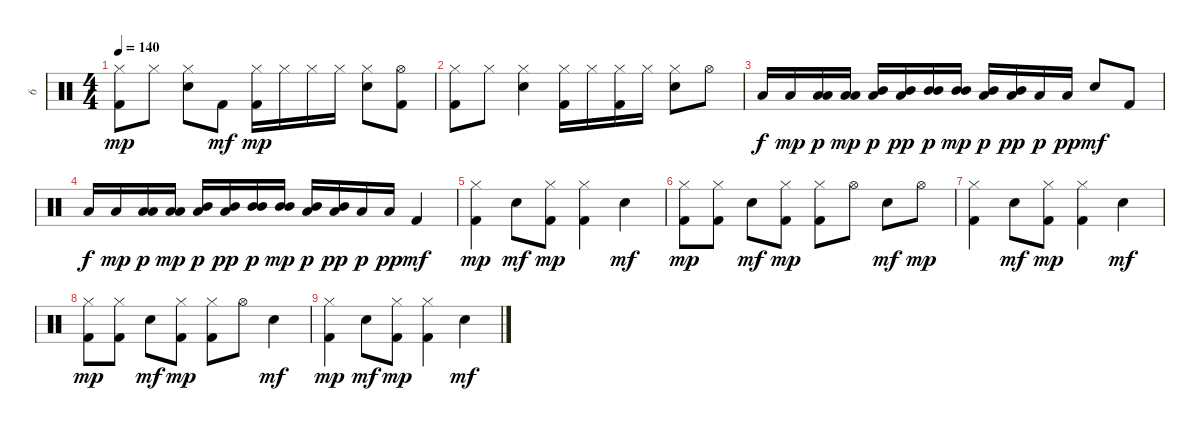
\track ("6" "6") {instrument percussion}
\staff {score}
\articulation defaults
\ts (4 4)
\tempo 140
\clef neutral
\ks c
("Kick (hit) 2" "Hi-Hat (closed)").8{dy mp} "Hi-Hat (closed)".8 ("Electric Snare (hit)" "Hi-Hat (closed)").8 "Kick (hit) 2".8{dy mf} ("Kick (hit) 2" "Hi-Hat (closed)").16{dy mp} "Hi-Hat (closed)".16 "Hi-Hat (closed)".16 "Hi-Hat (closed)".16 ("Electric Snare (hit)" "Hi-Hat (closed)").8 ("Kick (hit) 2" "Hi-Hat (open)").8 |
("Kick (hit) 2" "Hi-Hat (closed)").8 "Hi-Hat (closed)".8 ("Electric Snare (hit)" "Hi-Hat (closed)").4 ("Kick (hit) 2" "Hi-Hat (closed)").16 "Hi-Hat (closed)".16 ("Kick (hit) 2" "Hi-Hat (closed)").16 "Hi-Hat (closed)".16 ("Electric Snare (hit)" "Hi-Hat (closed)").8 "Hi-Hat (open)".8 |
"Low Tom (hit)".16{dy f} "Low Tom (hit)".16{dy mp} ("Low Tom (hit)" "Low Tom (hit)").16{dy p} ("Low Tom (hit)" "Low Tom (hit)").16{dy mp} ("Mid Tom (hit)" "Low Tom (hit)").16{dy p} ("Mid Tom (hit)" "Low Tom (hit)").16{dy pp} ("Mid Tom (hit)" "Mid Tom (hit)").16{dy p} ("Mid Tom (hit)" "Mid Tom (hit)").16{dy mp} ("Low Tom (hit)" "Mid Tom (hit)").16{dy p} ("Low Tom (hit)" "Mid Tom (hit)").16{dy pp} "Low Tom (hit)".16{dy p} "Low Tom (hit)".16{dy pp} "Electric Snare (hit)".8{dy mf} "Kick (hit) 2".8 |
"Low Tom (hit)".16{dy f} "Low Tom (hit)".16{dy mp} ("Low Tom (hit)" "Low Tom (hit)").16{dy p} ("Low Tom (hit)" "Low Tom (hit)").16{dy mp} ("Mid Tom (hit)" "Low Tom (hit)").16{dy p} ("Mid Tom (hit)" "Low Tom (hit)").16{dy pp} ("Mid Tom (hit)" "Mid Tom (hit)").16{dy p} ("Mid Tom (hit)" "Mid Tom (hit)").16{dy mp} ("Low Tom (hit)" "Mid Tom (hit)").16{dy p} ("Low Tom (hit)" "Mid Tom (hit)").16{dy pp} "Low Tom (hit)".16{dy p} "Low Tom (hit)".16{dy pp} "Kick (hit) 2".4{dy mf} |
("Kick (hit) 2" "Hi-Hat (closed)").4{dy mp volume 0} "Electric Snare (hit)".8{dy mf} ("Kick (hit) 2" "Hi-Hat (closed)").8{dy mp} ("Kick (hit) 2" "Hi-Hat (closed)").4 "Electric Snare (hit)".4{dy mf} |
("Kick (hit) 2" "Hi-Hat (closed)").8{dy mp} ("Kick (hit) 2" "Hi-Hat (closed)").8 "Electric Snare (hit)".8{dy mf} ("Kick (hit) 2" "Hi-Hat (closed)").8{dy mp} ("Kick (hit) 2" "Hi-Hat (closed)").8 "Hi-Hat (open)".8 "Electric Snare (hit)".8{dy mf} "Hi-Hat (open)".8{dy mp} |
("Kick (hit) 2" "Hi-Hat (closed)").4 "Electric Snare (hit)".8{dy mf} ("Kick (hit) 2" "Hi-Hat (closed)").8{dy mp} ("Kick (hit) 2" "Hi-Hat (closed)").4 "Electric Snare (hit)".4{dy mf} |
("Kick (hit) 2" "Hi-Hat (closed)").8{dy mp} ("Kick (hit) 2" "Hi-Hat (closed)").8 "Electric Snare (hit)".8{dy mf} ("Kick (hit) 2" "Hi-Hat (closed)").8{dy mp} ("Kick (hit) 2" "Hi-Hat (closed)").8 "Hi-Hat (open)".8 "Electric Snare (hit)".4{dy mf} |
("Kick (hit) 2" "Hi-Hat (closed)").4{dy mp} "Electric Snare (hit)".8{dy mf} ("Kick (hit) 2" "Hi-Hat (closed)").8{dy mp} ("Kick (hit) 2" "Hi-Hat (closed)").4 "Electric Snare (hit)".4{dy mf}
